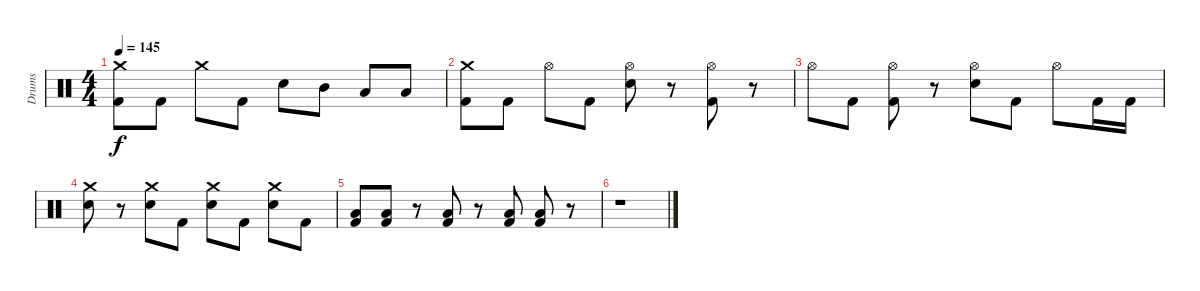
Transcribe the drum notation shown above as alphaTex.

\track ("Drums" "Drums") {instrument percussion}
\staff {score}
\articulation defaults
\ts (4 4)
\tempo 145
\clef neutral
\ks c
("Crash medium (hit)" "Kick (hit) 2").8{dy f} "Kick (hit) 2".8 "Crash medium (hit)".8 "Kick (hit) 2".8 "Electric Snare (hit)".8 "Mid Tom (hit)".8 "Low Tom (hit)".8 "Low Floor Tom (hit)".8 |
("Crash medium (hit)" "Kick (hit) 2").8 "Kick (hit) 2".8 "Hi-Hat (open)".8 "Kick (hit) 2".8 ("Hi-Hat (open)" "Electric Snare (hit)").8 r.8 ("Hi-Hat (open)" "Kick (hit) 2").8 r.8 |
"Hi-Hat (open)".8 "Kick (hit) 2".8 ("Hi-Hat (open)" "Kick (hit) 2").8 r.8 ("Hi-Hat (open)" "Electric Snare (hit)").8 "Kick (hit) 2".8 "Hi-Hat (open)".8 "Kick (hit) 2".16 "Kick (hit) 2".16 |
("Crash medium (hit)" "Electric Snare (hit)").8 r.8 ("Crash medium (hit)" "Electric Snare (hit)").8 "Kick (hit) 2".8 ("Crash medium (hit)" "Electric Snare (hit)").8 "Kick (hit) 2".8 ("Crash medium (hit)" "Electric Snare (hit)").8 "Kick (hit) 2".8 |
("Low Tom (hit)" "Kick (hit) 2").8 ("Low Tom (hit)" "Kick (hit) 2").8 r.8 ("Low Tom (hit)" "Kick (hit) 2").8 r.8 ("Low Tom (hit)" "Kick (hit) 2").8 ("Low Tom (hit)" "Kick (hit) 2").8 r.8 |
r.1
